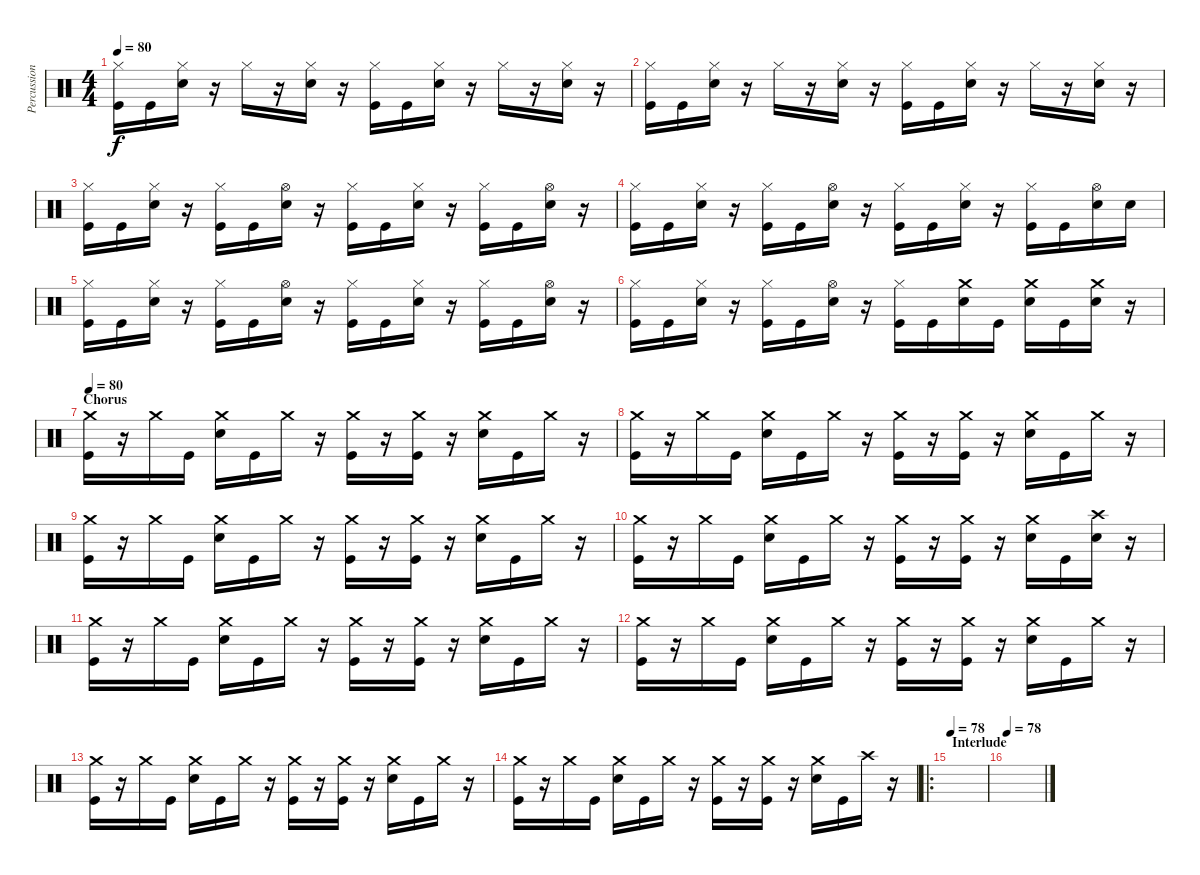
\track ("Percussion" "Percussion") {instrument percussion}
\staff {score}
\articulation defaults
\ts (4 4)
\tempo 80
\clef neutral
\ks c
("Hi-Hat (closed)" "Kick (hit)").16{dy f} "Kick (hit)".16 ("Hi-Hat (closed)" "Snare (hit) 2").16 r.16 "Hi-Hat (closed)".16 r.16 ("Hi-Hat (closed)" "Snare (hit) 2").16 r.16 ("Hi-Hat (closed)" "Kick (hit)").16 "Kick (hit)".16 ("Hi-Hat (closed)" "Snare (hit) 2").16 r.16 "Hi-Hat (closed)".16 r.16 ("Hi-Hat (closed)" "Snare (hit) 2").16 r.16 |
("Hi-Hat (closed)" "Kick (hit)").16 "Kick (hit)".16 ("Hi-Hat (closed)" "Snare (hit) 2").16 r.16 "Hi-Hat (closed)".16 r.16 ("Hi-Hat (closed)" "Snare (hit) 2").16 r.16 ("Hi-Hat (closed)" "Kick (hit)").16 "Kick (hit)".16 ("Hi-Hat (closed)" "Snare (hit) 2").16 r.16 "Hi-Hat (closed)".16 r.16 ("Hi-Hat (closed)" "Snare (hit) 2").16 r.16 |
("Hi-Hat (closed)" "Kick (hit)").16 "Kick (hit)".16 ("Hi-Hat (closed)" "Snare (hit) 2").16 r.16 ("Hi-Hat (closed)" "Kick (hit)").16 "Kick (hit)".16 ("Hi-Hat (open)" "Snare (hit) 2").16 r.16 ("Hi-Hat (closed)" "Kick (hit)").16 "Kick (hit)".16 ("Hi-Hat (closed)" "Snare (hit) 2").16 r.16 ("Hi-Hat (closed)" "Kick (hit)").16 "Kick (hit)".16 ("Hi-Hat (open)" "Snare (hit) 2").16 r.16 |
("Hi-Hat (closed)" "Kick (hit)").16 "Kick (hit)".16 ("Hi-Hat (closed)" "Snare (hit) 2").16 r.16 ("Hi-Hat (closed)" "Kick (hit)").16 "Kick (hit)".16 ("Hi-Hat (open)" "Snare (hit) 2").16 r.16 ("Hi-Hat (closed)" "Kick (hit)").16 "Kick (hit)".16 ("Hi-Hat (closed)" "Snare (hit) 2").16 r.16 ("Hi-Hat (closed)" "Kick (hit)").16 "Kick (hit)".16 ("Hi-Hat (open)" "Snare (hit) 2").16 "Snare (hit) 2".16 |
("Hi-Hat (closed)" "Kick (hit)").16 "Kick (hit)".16 ("Hi-Hat (closed)" "Snare (hit) 2").16 r.16 ("Hi-Hat (closed)" "Kick (hit)").16 "Kick (hit)".16 ("Hi-Hat (open)" "Snare (hit) 2").16 r.16 ("Hi-Hat (closed)" "Kick (hit)").16 "Kick (hit)".16 ("Hi-Hat (closed)" "Snare (hit) 2").16 r.16 ("Hi-Hat (closed)" "Kick (hit)").16 "Kick (hit)".16 ("Hi-Hat (open)" "Snare (hit) 2").16 r.16 |
("Hi-Hat (closed)" "Kick (hit)").16 "Kick (hit)".16 ("Hi-Hat (closed)" "Snare (hit) 2").16 r.16 ("Hi-Hat (closed)" "Kick (hit)").16 "Kick (hit)".16 ("Hi-Hat (open)" "Snare (hit) 2").16 r.16 ("Hi-Hat (closed)" "Kick (hit)").16 "Kick (hit)".16 ("Crash medium (hit)" "Snare (hit) 2").16 "Kick (hit)".16 ("Crash medium (hit)" "Snare (hit) 2").16 "Kick (hit)".16 ("Crash medium (hit)" "Snare (hit) 2").16 r.16 |
\section ("" "Chorus")
\tempo 80
("Crash medium (hit)" "Kick (hit)").16 r.16 "Crash medium (hit)".16 "Kick (hit)".16 ("Crash medium (hit)" "Snare (hit) 2").16 "Kick (hit)".16 "Crash medium (hit)".16 r.16 ("Crash medium (hit)" "Kick (hit)").16 r.16 ("Crash medium (hit)" "Kick (hit)").16 r.16 ("Crash medium (hit)" "Snare (hit) 2").16 "Kick (hit)".16 "Crash medium (hit)".16 r.16 |
("Crash medium (hit)" "Kick (hit)").16 r.16 "Crash medium (hit)".16 "Kick (hit)".16 ("Crash medium (hit)" "Snare (hit) 2").16 "Kick (hit)".16 "Crash medium (hit)".16 r.16 ("Crash medium (hit)" "Kick (hit)").16 r.16 ("Crash medium (hit)" "Kick (hit)").16 r.16 ("Crash medium (hit)" "Snare (hit) 2").16 "Kick (hit)".16 "Crash medium (hit)".16 r.16 |
("Crash medium (hit)" "Kick (hit)").16 r.16 "Crash medium (hit)".16 "Kick (hit)".16 ("Crash medium (hit)" "Snare (hit) 2").16 "Kick (hit)".16 "Crash medium (hit)".16 r.16 ("Crash medium (hit)" "Kick (hit)").16 r.16 ("Crash medium (hit)" "Kick (hit)").16 r.16 ("Crash medium (hit)" "Snare (hit) 2").16 "Kick (hit)".16 "Crash medium (hit)".16 r.16 |
("Crash medium (hit)" "Kick (hit)").16 r.16 "Crash medium (hit)".16 "Kick (hit)".16 ("Crash medium (hit)" "Snare (hit) 2").16 "Kick (hit)".16 "Crash medium (hit)".16 r.16 ("Crash medium (hit)" "Kick (hit)").16 r.16 ("Crash medium (hit)" "Kick (hit)").16 r.16 ("Crash medium (hit)" "Snare (hit) 2").16 "Kick (hit)".16 ("Crash high (hit)" "Snare (hit) 2").16 r.16 |
("Crash medium (hit)" "Kick (hit)").16 r.16 "Crash medium (hit)".16 "Kick (hit)".16 ("Crash medium (hit)" "Snare (hit) 2").16 "Kick (hit)".16 "Crash medium (hit)".16 r.16 ("Crash medium (hit)" "Kick (hit)").16 r.16 ("Crash medium (hit)" "Kick (hit)").16 r.16 ("Crash medium (hit)" "Snare (hit) 2").16 "Kick (hit)".16 "Crash medium (hit)".16 r.16 |
("Crash medium (hit)" "Kick (hit)").16 r.16 "Crash medium (hit)".16 "Kick (hit)".16 ("Crash medium (hit)" "Snare (hit) 2").16 "Kick (hit)".16 "Crash medium (hit)".16 r.16 ("Crash medium (hit)" "Kick (hit)").16 r.16 ("Crash medium (hit)" "Kick (hit)").16 r.16 ("Crash medium (hit)" "Snare (hit) 2").16 "Kick (hit)".16 "Crash medium (hit)".16 r.16 |
("Crash medium (hit)" "Kick (hit)").16 r.16 "Crash medium (hit)".16 "Kick (hit)".16 ("Crash medium (hit)" "Snare (hit) 2").16 "Kick (hit)".16 "Crash medium (hit)".16 r.16 ("Crash medium (hit)" "Kick (hit)").16 r.16 ("Crash medium (hit)" "Kick (hit)").16 r.16 ("Crash medium (hit)" "Snare (hit) 2").16 "Kick (hit)".16 "Crash medium (hit)".16 r.16 |
("Crash medium (hit)" "Kick (hit)").16 r.16 "Crash medium (hit)".16 "Kick (hit)".16 ("Crash medium (hit)" "Snare (hit) 2").16 "Kick (hit)".16 "Crash medium (hit)".16 r.16 ("Crash medium (hit)" "Kick (hit)").16 r.16 ("Crash medium (hit)" "Kick (hit)").16 r.16 ("Crash medium (hit)" "Snare (hit) 2").16 "Kick (hit)".16 "Crash high (hit)".16 r.16 |
\ro
\section ("" "Interlude")
\tempo 78
|
\tempo 78
